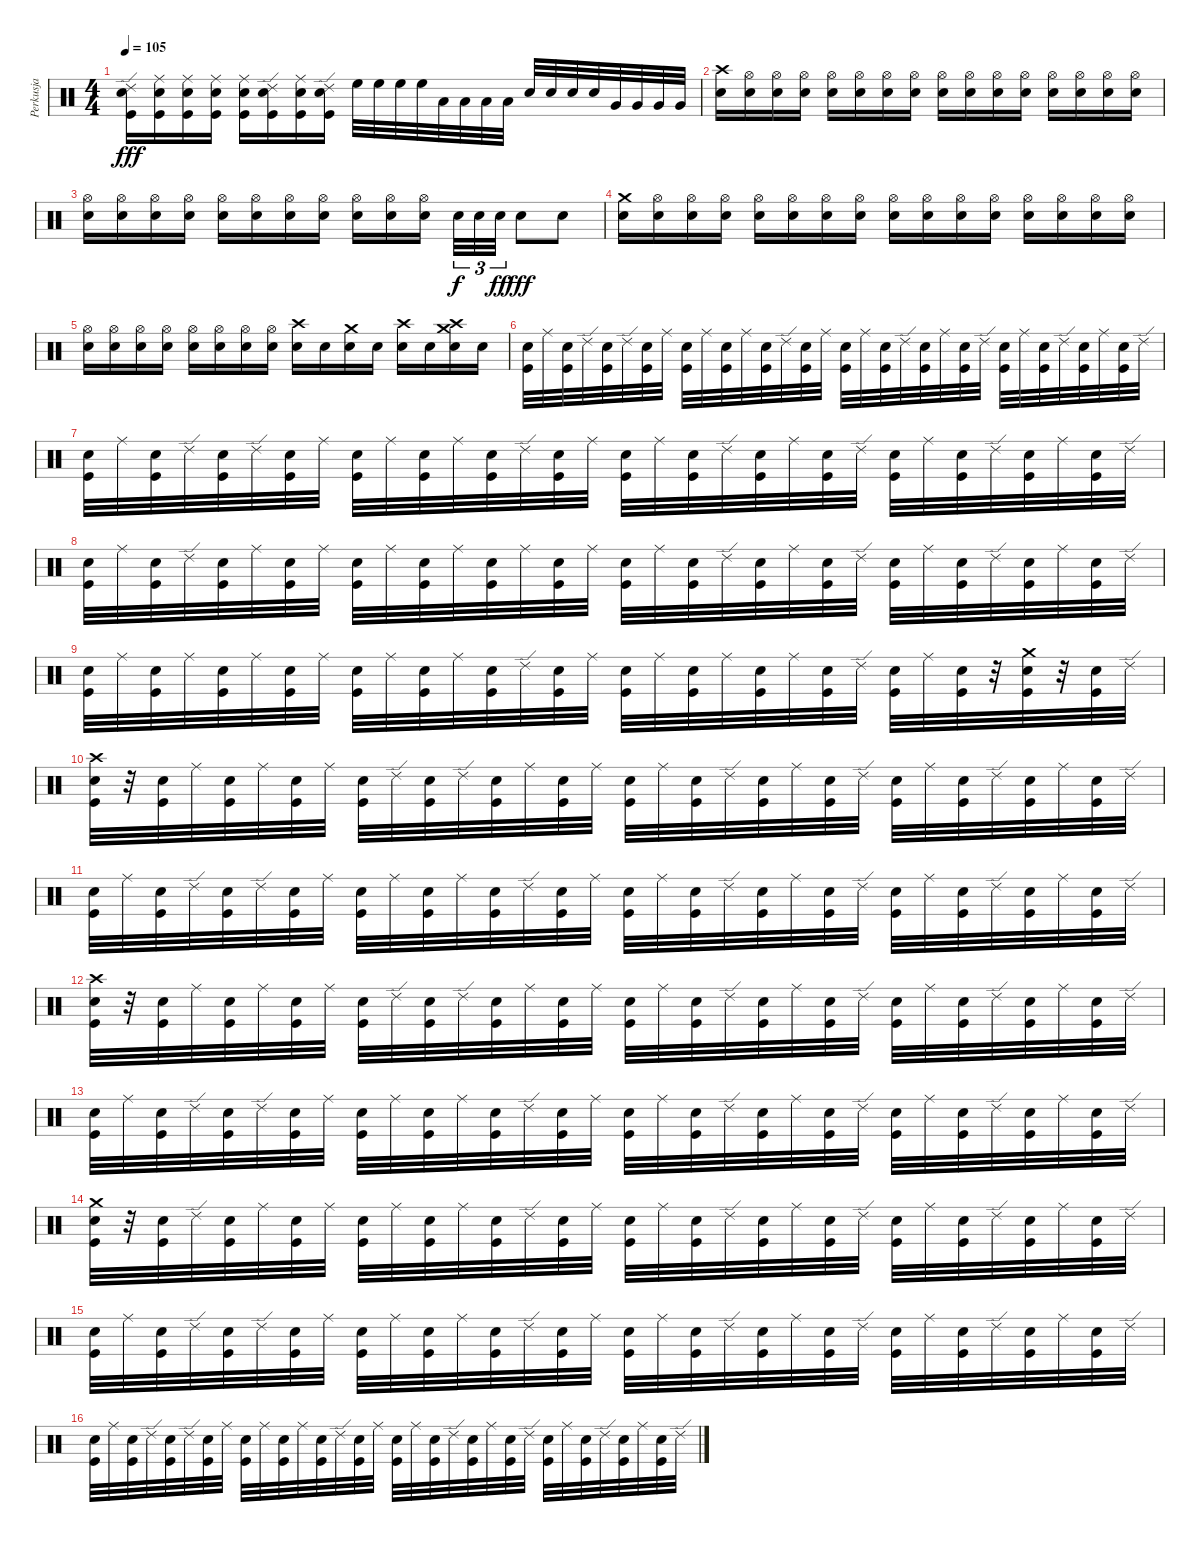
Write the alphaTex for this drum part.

\track ("Perkusja" "Perkusja") {instrument percussion}
\staff {score}
\articulation defaults
\ts (4 4)
\tempo 105
\clef neutral
\ks c
("Ride (edge) 2" "Snare (hit) 2" "Kick (hit)").16{dy fff} ("Ride (middle)" "Snare (hit) 2" "Kick (hit)").16 ("Ride (middle)" "Snare (hit) 2" "Kick (hit)").16 ("Ride (middle)" "Snare (hit) 2" "Kick (hit)").16 ("Ride (middle)" "Snare (hit) 2" "Kick (hit)").16 ("Ride (edge) 2" "Snare (hit) 2" "Kick (hit)").16 ("Ride (middle)" "Snare (hit) 2" "Kick (hit)").16 ("Ride (edge) 2" "Snare (hit) 2" "Kick (hit)").16 "High Floor Tom (hit)".32{balance 0} "High Floor Tom (hit)".32 "High Floor Tom (hit)".32 "High Floor Tom (hit)".32 "Low Tom (hit)".32{balance 10} "Low Tom (hit)".32 "Low Tom (hit)".32 "Low Tom (hit)".32 "Snare (hit) 2".32{balance 8} "Snare (hit) 2".32 "Snare (hit) 2".32 "Snare (hit) 2".32 "Very Low Tom (hit)".32{balance 16} "Very Low Tom (hit)".32 "Very Low Tom (hit)".32 "Very Low Tom (hit)".32 |
("Crash high (hit)" "Snare (hit) 2").16{balance 8} ("Hi-Hat (open)" "Snare (hit) 2").16 ("Hi-Hat (open)" "Snare (hit) 2").16 ("Hi-Hat (open)" "Snare (hit) 2").16 ("Hi-Hat (open)" "Snare (hit) 2").16 ("Hi-Hat (open)" "Snare (hit) 2").16 ("Hi-Hat (open)" "Snare (hit) 2").16 ("Hi-Hat (open)" "Snare (hit) 2").16 ("Hi-Hat (open)" "Snare (hit) 2").16 ("Hi-Hat (open)" "Snare (hit) 2").16 ("Hi-Hat (open)" "Snare (hit) 2").16 ("Hi-Hat (open)" "Snare (hit) 2").16 ("Hi-Hat (open)" "Snare (hit) 2").16 ("Hi-Hat (open)" "Snare (hit) 2").16 ("Hi-Hat (open)" "Snare (hit) 2").16 ("Hi-Hat (open)" "Snare (hit) 2").16 |
("Hi-Hat (open)" "Snare (hit) 2").16 ("Hi-Hat (open)" "Snare (hit) 2").16 ("Hi-Hat (open)" "Snare (hit) 2").16 ("Hi-Hat (open)" "Snare (hit) 2").16 ("Hi-Hat (open)" "Snare (hit) 2").16 ("Hi-Hat (open)" "Snare (hit) 2").16 ("Hi-Hat (open)" "Snare (hit) 2").16 ("Hi-Hat (open)" "Snare (hit) 2").16 ("Hi-Hat (open)" "Snare (hit) 2").16 ("Hi-Hat (open)" "Snare (hit) 2").16 ("Hi-Hat (open)" "Snare (hit) 2").16 "Snare (hit) 2".32{tu (3 2) dy f} "Snare (hit) 2".32{tu (3 2)} "Snare (hit) 2".32{tu (3 2) dy ff} "Snare (hit) 2".8{dy fff} "Snare (hit) 2".8 |
("Crash medium (hit)" "Snare (hit) 2").16 ("Hi-Hat (open)" "Snare (hit) 2").16 ("Hi-Hat (open)" "Snare (hit) 2").16 ("Hi-Hat (open)" "Snare (hit) 2").16 ("Hi-Hat (open)" "Snare (hit) 2").16 ("Hi-Hat (open)" "Snare (hit) 2").16 ("Hi-Hat (open)" "Snare (hit) 2").16 ("Hi-Hat (open)" "Snare (hit) 2").16 ("Hi-Hat (open)" "Snare (hit) 2").16 ("Hi-Hat (open)" "Snare (hit) 2").16 ("Hi-Hat (open)" "Snare (hit) 2").16 ("Hi-Hat (open)" "Snare (hit) 2").16 ("Hi-Hat (open)" "Snare (hit) 2").16 ("Hi-Hat (open)" "Snare (hit) 2").16 ("Hi-Hat (open)" "Snare (hit) 2").16 ("Hi-Hat (open)" "Snare (hit) 2").16 |
("Hi-Hat (open)" "Snare (hit) 2").16 ("Hi-Hat (open)" "Snare (hit) 2").16 ("Hi-Hat (open)" "Snare (hit) 2").16 ("Hi-Hat (open)" "Snare (hit) 2").16 ("Hi-Hat (open)" "Snare (hit) 2").16 ("Hi-Hat (open)" "Snare (hit) 2").16 ("Hi-Hat (open)" "Snare (hit) 2").16 ("Hi-Hat (open)" "Snare (hit) 2").16 ("Crash high (hit)" "Snare (hit) 2").16 "Snare (hit) 2".16 ("Crash medium (hit)" "Snare (hit) 2").16 "Snare (hit) 2".16 ("Crash high (hit)" "Snare (hit) 2").16 "Snare (hit) 2".16 ("Crash high (hit)" "Crash medium (hit)" "Snare (hit) 2").16 "Snare (hit) 2".16 |
("Snare (hit) 2" "Kick (hit)").32 "Ride (middle)".32 ("Snare (hit) 2" "Kick (hit)").32 "Ride (edge) 2".32 ("Snare (hit) 2" "Kick (hit)").32 "Ride (edge) 2".32 ("Snare (hit) 2" "Kick (hit)").32 "Ride (middle)".32 ("Snare (hit) 2" "Kick (hit)").32 "Ride (middle)".32 ("Snare (hit) 2" "Kick (hit)").32 "Ride (middle)".32 ("Snare (hit) 2" "Kick (hit)").32 "Ride (edge) 2".32 ("Snare (hit) 2" "Kick (hit)").32 "Ride (middle)".32 ("Snare (hit) 2" "Kick (hit)").32 "Ride (middle)".32 ("Snare (hit) 2" "Kick (hit)").32 "Ride (edge) 2".32 ("Snare (hit) 2" "Kick (hit)").32 "Ride (middle)".32 ("Snare (hit) 2" "Kick (hit)").32 "Ride (edge) 2".32 ("Snare (hit) 2" "Kick (hit)").32 "Ride (middle)".32 ("Snare (hit) 2" "Kick (hit)").32 "Ride (edge) 2".32 ("Snare (hit) 2" "Kick (hit)").32 "Ride (middle)".32 ("Snare (hit) 2" "Kick (hit)").32 "Ride (edge) 2".32 |
("Snare (hit) 2" "Kick (hit)").32 "Ride (middle)".32 ("Snare (hit) 2" "Kick (hit)").32 "Ride (edge) 2".32 ("Snare (hit) 2" "Kick (hit)").32 "Ride (edge) 2".32 ("Snare (hit) 2" "Kick (hit)").32 "Ride (middle)".32 ("Snare (hit) 2" "Kick (hit)").32 "Ride (middle)".32 ("Snare (hit) 2" "Kick (hit)").32 "Ride (middle)".32 ("Snare (hit) 2" "Kick (hit)").32 "Ride (edge) 2".32 ("Snare (hit) 2" "Kick (hit)").32 "Ride (middle)".32 ("Snare (hit) 2" "Kick (hit)").32 "Ride (middle)".32 ("Snare (hit) 2" "Kick (hit)").32 "Ride (edge) 2".32 ("Snare (hit) 2" "Kick (hit)").32 "Ride (middle)".32 ("Snare (hit) 2" "Kick (hit)").32 "Ride (edge) 2".32 ("Snare (hit) 2" "Kick (hit)").32 "Ride (middle)".32 ("Snare (hit) 2" "Kick (hit)").32 "Ride (edge) 2".32 ("Snare (hit) 2" "Kick (hit)").32 "Ride (middle)".32 ("Snare (hit) 2" "Kick (hit)").32 "Ride (edge) 2".32 |
("Snare (hit) 2" "Kick (hit)").32 "Ride (middle)".32 ("Snare (hit) 2" "Kick (hit)").32 "Ride (edge) 2".32 ("Snare (hit) 2" "Kick (hit)").32 "Ride (middle)".32 ("Snare (hit) 2" "Kick (hit)").32 "Ride (middle)".32 ("Snare (hit) 2" "Kick (hit)").32 "Ride (middle)".32 ("Snare (hit) 2" "Kick (hit)").32 "Ride (middle)".32 ("Snare (hit) 2" "Kick (hit)").32 "Ride (middle)".32 ("Snare (hit) 2" "Kick (hit)").32 "Ride (middle)".32 ("Snare (hit) 2" "Kick (hit)").32 "Ride (middle)".32 ("Snare (hit) 2" "Kick (hit)").32 "Ride (edge) 2".32 ("Snare (hit) 2" "Kick (hit)").32 "Ride (middle)".32 ("Snare (hit) 2" "Kick (hit)").32 "Ride (edge) 2".32 ("Snare (hit) 2" "Kick (hit)").32 "Ride (middle)".32 ("Snare (hit) 2" "Kick (hit)").32 "Ride (edge) 2".32 ("Snare (hit) 2" "Kick (hit)").32 "Ride (middle)".32 ("Snare (hit) 2" "Kick (hit)").32 "Ride (edge) 2".32 |
("Snare (hit) 2" "Kick (hit)").32 "Ride (middle)".32 ("Snare (hit) 2" "Kick (hit)").32 "Ride (middle)".32 ("Snare (hit) 2" "Kick (hit)").32 "Ride (middle)".32 ("Snare (hit) 2" "Kick (hit)").32 "Ride (middle)".32 ("Snare (hit) 2" "Kick (hit)").32 "Ride (middle)".32 ("Snare (hit) 2" "Kick (hit)").32 "Ride (middle)".32 ("Snare (hit) 2" "Kick (hit)").32 "Ride (edge) 2".32 ("Snare (hit) 2" "Kick (hit)").32 "Ride (middle)".32 ("Snare (hit) 2" "Kick (hit)").32 "Ride (middle)".32 ("Snare (hit) 2" "Kick (hit)").32 "Ride (middle)".32 ("Snare (hit) 2" "Kick (hit)").32 "Ride (middle)".32 ("Snare (hit) 2" "Kick (hit)").32 "Ride (edge) 2".32 ("Snare (hit) 2" "Kick (hit)").32 "Ride (middle)".32 ("Snare (hit) 2" "Kick (hit)").32 r.32 ("Crash medium (hit)" "Snare (hit) 2" "Kick (hit)").32 r.32 ("Snare (hit) 2" "Kick (hit)").32 "Ride (edge) 2".32 |
("Crash high (hit)" "Snare (hit) 2" "Kick (hit)").32 r.32 ("Snare (hit) 2" "Kick (hit)").32 "Ride (middle)".32 ("Snare (hit) 2" "Kick (hit)").32 "Ride (middle)".32 ("Snare (hit) 2" "Kick (hit)").32 "Ride (middle)".32 ("Snare (hit) 2" "Kick (hit)").32 "Ride (edge) 2".32 ("Snare (hit) 2" "Kick (hit)").32 "Ride (edge) 2".32 ("Snare (hit) 2" "Kick (hit)").32 "Ride (middle)".32 ("Snare (hit) 2" "Kick (hit)").32 "Ride (middle)".32 ("Snare (hit) 2" "Kick (hit)").32 "Ride (middle)".32 ("Snare (hit) 2" "Kick (hit)").32 "Ride (edge) 2".32 ("Snare (hit) 2" "Kick (hit)").32 "Ride (middle)".32 ("Snare (hit) 2" "Kick (hit)").32 "Ride (edge) 2".32 ("Snare (hit) 2" "Kick (hit)").32 "Ride (middle)".32 ("Snare (hit) 2" "Kick (hit)").32 "Ride (edge) 2".32 ("Snare (hit) 2" "Kick (hit)").32 "Ride (middle)".32 ("Snare (hit) 2" "Kick (hit)").32 "Ride (edge) 2".32 |
("Snare (hit) 2" "Kick (hit)").32 "Ride (middle)".32 ("Snare (hit) 2" "Kick (hit)").32 "Ride (edge) 2".32 ("Snare (hit) 2" "Kick (hit)").32 "Ride (edge) 2".32 ("Snare (hit) 2" "Kick (hit)").32 "Ride (middle)".32 ("Snare (hit) 2" "Kick (hit)").32 "Ride (middle)".32 ("Snare (hit) 2" "Kick (hit)").32 "Ride (middle)".32 ("Snare (hit) 2" "Kick (hit)").32 "Ride (edge) 2".32 ("Snare (hit) 2" "Kick (hit)").32 "Ride (middle)".32 ("Snare (hit) 2" "Kick (hit)").32 "Ride (middle)".32 ("Snare (hit) 2" "Kick (hit)").32 "Ride (edge) 2".32 ("Snare (hit) 2" "Kick (hit)").32 "Ride (middle)".32 ("Snare (hit) 2" "Kick (hit)").32 "Ride (edge) 2".32 ("Snare (hit) 2" "Kick (hit)").32 "Ride (middle)".32 ("Snare (hit) 2" "Kick (hit)").32 "Ride (edge) 2".32 ("Snare (hit) 2" "Kick (hit)").32 "Ride (middle)".32 ("Snare (hit) 2" "Kick (hit)").32 "Ride (edge) 2".32 |
("Crash high (hit)" "Snare (hit) 2" "Kick (hit)").32 r.32 ("Snare (hit) 2" "Kick (hit)").32 "Ride (middle)".32 ("Snare (hit) 2" "Kick (hit)").32 "Ride (middle)".32 ("Snare (hit) 2" "Kick (hit)").32 "Ride (middle)".32 ("Snare (hit) 2" "Kick (hit)").32 "Ride (edge) 2".32 ("Snare (hit) 2" "Kick (hit)").32 "Ride (edge) 2".32 ("Snare (hit) 2" "Kick (hit)").32 "Ride (middle)".32 ("Snare (hit) 2" "Kick (hit)").32 "Ride (middle)".32 ("Snare (hit) 2" "Kick (hit)").32 "Ride (middle)".32 ("Snare (hit) 2" "Kick (hit)").32 "Ride (edge) 2".32 ("Snare (hit) 2" "Kick (hit)").32 "Ride (middle)".32 ("Snare (hit) 2" "Kick (hit)").32 "Ride (edge) 2".32 ("Snare (hit) 2" "Kick (hit)").32 "Ride (middle)".32 ("Snare (hit) 2" "Kick (hit)").32 "Ride (edge) 2".32 ("Snare (hit) 2" "Kick (hit)").32 "Ride (middle)".32 ("Snare (hit) 2" "Kick (hit)").32 "Ride (edge) 2".32 |
("Snare (hit) 2" "Kick (hit)").32 "Ride (middle)".32 ("Snare (hit) 2" "Kick (hit)").32 "Ride (edge) 2".32 ("Snare (hit) 2" "Kick (hit)").32 "Ride (edge) 2".32 ("Snare (hit) 2" "Kick (hit)").32 "Ride (middle)".32 ("Snare (hit) 2" "Kick (hit)").32 "Ride (middle)".32 ("Snare (hit) 2" "Kick (hit)").32 "Ride (middle)".32 ("Snare (hit) 2" "Kick (hit)").32 "Ride (edge) 2".32 ("Snare (hit) 2" "Kick (hit)").32 "Ride (middle)".32 ("Snare (hit) 2" "Kick (hit)").32 "Ride (middle)".32 ("Snare (hit) 2" "Kick (hit)").32 "Ride (edge) 2".32 ("Snare (hit) 2" "Kick (hit)").32 "Ride (middle)".32 ("Snare (hit) 2" "Kick (hit)").32 "Ride (edge) 2".32 ("Snare (hit) 2" "Kick (hit)").32 "Ride (middle)".32 ("Snare (hit) 2" "Kick (hit)").32 "Ride (edge) 2".32 ("Snare (hit) 2" "Kick (hit)").32 "Ride (middle)".32 ("Snare (hit) 2" "Kick (hit)").32 "Ride (edge) 2".32 |
("Crash medium (hit)" "Snare (hit) 2" "Kick (hit)").32 r.32 ("Snare (hit) 2" "Kick (hit)").32 "Ride (edge) 2".32 ("Snare (hit) 2" "Kick (hit)").32 "Ride (middle)".32 ("Snare (hit) 2" "Kick (hit)").32 "Ride (middle)".32 ("Snare (hit) 2" "Kick (hit)").32 "Ride (middle)".32 ("Snare (hit) 2" "Kick (hit)").32 "Ride (middle)".32 ("Snare (hit) 2" "Kick (hit)").32 "Ride (edge) 2".32 ("Snare (hit) 2" "Kick (hit)").32 "Ride (middle)".32 ("Snare (hit) 2" "Kick (hit)").32 "Ride (middle)".32 ("Snare (hit) 2" "Kick (hit)").32 "Ride (edge) 2".32 ("Snare (hit) 2" "Kick (hit)").32 "Ride (middle)".32 ("Snare (hit) 2" "Kick (hit)").32 "Ride (edge) 2".32 ("Snare (hit) 2" "Kick (hit)").32 "Ride (middle)".32 ("Snare (hit) 2" "Kick (hit)").32 "Ride (edge) 2".32 ("Snare (hit) 2" "Kick (hit)").32 "Ride (middle)".32 ("Snare (hit) 2" "Kick (hit)").32 "Ride (edge) 2".32 |
("Snare (hit) 2" "Kick (hit)").32 "Ride (middle)".32 ("Snare (hit) 2" "Kick (hit)").32 "Ride (edge) 2".32 ("Snare (hit) 2" "Kick (hit)").32 "Ride (edge) 2".32 ("Snare (hit) 2" "Kick (hit)").32 "Ride (middle)".32 ("Snare (hit) 2" "Kick (hit)").32 "Ride (middle)".32 ("Snare (hit) 2" "Kick (hit)").32 "Ride (middle)".32 ("Snare (hit) 2" "Kick (hit)").32 "Ride (edge) 2".32 ("Snare (hit) 2" "Kick (hit)").32 "Ride (middle)".32 ("Snare (hit) 2" "Kick (hit)").32 "Ride (middle)".32 ("Snare (hit) 2" "Kick (hit)").32 "Ride (edge) 2".32 ("Snare (hit) 2" "Kick (hit)").32 "Ride (middle)".32 ("Snare (hit) 2" "Kick (hit)").32 "Ride (edge) 2".32 ("Snare (hit) 2" "Kick (hit)").32 "Ride (middle)".32 ("Snare (hit) 2" "Kick (hit)").32 "Ride (edge) 2".32 ("Snare (hit) 2" "Kick (hit)").32 "Ride (middle)".32 ("Snare (hit) 2" "Kick (hit)").32 "Ride (edge) 2".32 |
("Snare (hit) 2" "Kick (hit)").32 "Ride (middle)".32 ("Snare (hit) 2" "Kick (hit)").32 "Ride (edge) 2".32 ("Snare (hit) 2" "Kick (hit)").32 "Ride (edge) 2".32 ("Snare (hit) 2" "Kick (hit)").32 "Ride (middle)".32 ("Snare (hit) 2" "Kick (hit)").32 "Ride (middle)".32 ("Snare (hit) 2" "Kick (hit)").32 "Ride (middle)".32 ("Snare (hit) 2" "Kick (hit)").32 "Ride (edge) 2".32 ("Snare (hit) 2" "Kick (hit)").32 "Ride (middle)".32 ("Snare (hit) 2" "Kick (hit)").32 "Ride (middle)".32 ("Snare (hit) 2" "Kick (hit)").32 "Ride (edge) 2".32 ("Snare (hit) 2" "Kick (hit)").32 "Ride (middle)".32 ("Snare (hit) 2" "Kick (hit)").32 "Ride (edge) 2".32 ("Snare (hit) 2" "Kick (hit)").32 "Ride (middle)".32 ("Snare (hit) 2" "Kick (hit)").32 "Ride (edge) 2".32 ("Snare (hit) 2" "Kick (hit)").32 "Ride (middle)".32 ("Snare (hit) 2" "Kick (hit)").32 "Ride (edge) 2".32
